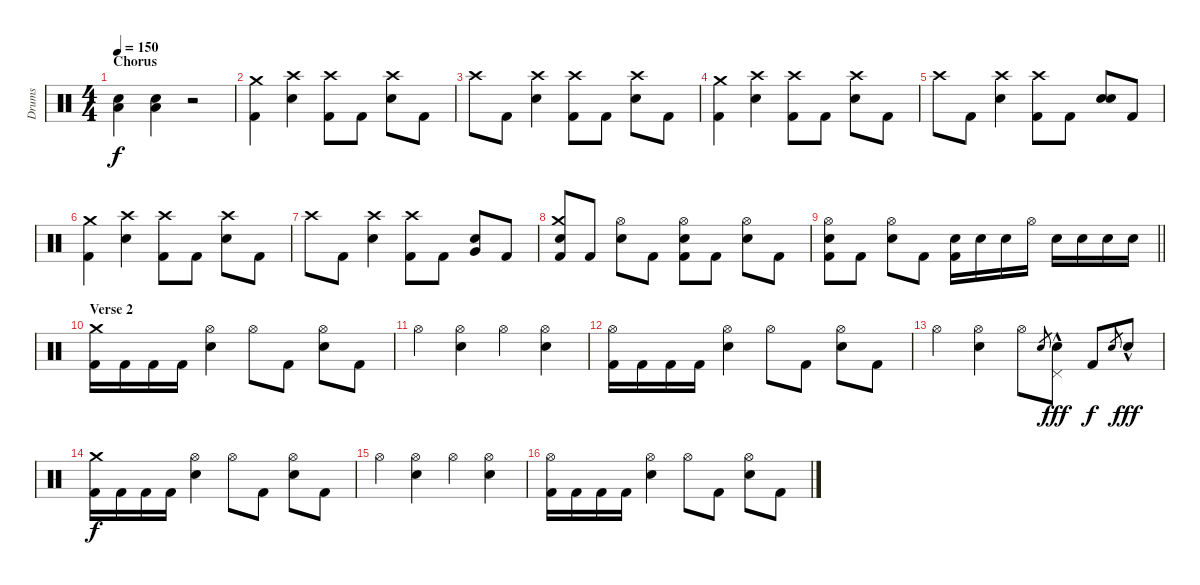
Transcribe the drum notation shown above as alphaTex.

\track ("Drums" "Drums") {instrument percussion}
\staff {score}
\articulation defaults
\ts (4 4)
\section ("" "Chorus")
\tempo 150
\clef neutral
\ks c
("Electric Snare (hit)" "Low Floor Tom (hit)").4{dy f} ("Electric Snare (hit)" "Low Floor Tom (hit)").4 r.2 |
("Crash medium (hit)" "Kick (hit) 2").4 ("Crash high (hit)" "Electric Snare (hit)").4 ("Crash high (hit)" "Kick (hit) 2").8 "Kick (hit) 2".8 ("Crash high (hit)" "Electric Snare (hit)").8 "Kick (hit) 2".8 |
"Crash high (hit)".8 "Kick (hit) 2".8 ("Crash high (hit)" "Electric Snare (hit)").4 ("Crash high (hit)" "Kick (hit) 2").8 "Kick (hit) 2".8 ("Crash high (hit)" "Electric Snare (hit)").8 "Kick (hit) 2".8 |
("Crash medium (hit)" "Kick (hit) 2").4 ("Crash high (hit)" "Electric Snare (hit)").4 ("Crash high (hit)" "Kick (hit) 2").8 "Kick (hit) 2".8 ("Crash high (hit)" "Electric Snare (hit)").8 "Kick (hit) 2".8 |
"Crash high (hit)".8 "Kick (hit) 2".8 ("Crash high (hit)" "Electric Snare (hit)").4 ("Crash high (hit)" "Kick (hit) 2").8 "Kick (hit) 2".8 ("Electric Snare (hit)" "Electric Snare (hit)").8 "Kick (hit) 2".8 |
("Crash medium (hit)" "Kick (hit) 2").4 ("Crash high (hit)" "Electric Snare (hit)").4 ("Crash high (hit)" "Kick (hit) 2").8 "Kick (hit) 2".8 ("Crash high (hit)" "Electric Snare (hit)").8 "Kick (hit) 2".8 |
"Crash high (hit)".8 "Kick (hit) 2".8 ("Crash high (hit)" "Electric Snare (hit)").4 ("Crash high (hit)" "Kick (hit) 2").8 "Kick (hit) 2".8 ("Electric Snare (hit)" "Very Low Tom (hit)").8 "Kick (hit) 2".8 |
("Crash medium (hit)" "Electric Snare (hit)" "Kick (hit) 2").8 "Kick (hit) 2".8 ("Hi-Hat (open)" "Electric Snare (hit)").8 "Kick (hit) 2".8 ("Hi-Hat (open)" "Electric Snare (hit)" "Kick (hit) 2").8 "Kick (hit) 2".8 ("Hi-Hat (open)" "Electric Snare (hit)").8 "Kick (hit) 2".8 |
\barLineRight lightlight
("Hi-Hat (open)" "Electric Snare (hit)" "Kick (hit) 2").8 "Kick (hit) 2".8 ("Hi-Hat (open)" "Electric Snare (hit)").8 "Kick (hit) 2".8 ("Electric Snare (hit)" "Kick (hit) 2").16 "Electric Snare (hit)".16 "Electric Snare (hit)".16 "Hi-Hat (open)".16 "Electric Snare (hit)".16 "Electric Snare (hit)".16 "Electric Snare (hit)".16 "Electric Snare (hit)".16 |
\section ("" "Verse 2")
("Crash medium (hit)" "Kick (hit) 2").16 "Kick (hit) 2".16 "Kick (hit) 2".16 "Kick (hit) 2".16 ("Hi-Hat (open)" "Electric Snare (hit)").4 "Hi-Hat (open)".8 "Kick (hit) 2".8 ("Hi-Hat (open)" "Electric Snare (hit)").8 "Kick (hit) 2".8 |
"Hi-Hat (open)".4 ("Hi-Hat (open)" "Electric Snare (hit)").4 "Hi-Hat (open)".4 ("Hi-Hat (open)" "Electric Snare (hit)").4 |
("Hi-Hat (open)" "Kick (hit) 2").16 "Kick (hit) 2".16 "Kick (hit) 2".16 "Kick (hit) 2".16 ("Hi-Hat (open)" "Electric Snare (hit)").4 "Hi-Hat (open)".8 "Kick (hit) 2".8 ("Hi-Hat (open)" "Electric Snare (hit)").8 "Kick (hit) 2".8 |
"Hi-Hat (open)".4 ("Hi-Hat (open)" "Electric Snare (hit)").4 "Hi-Hat (open)".8 "Electric Snare (hit)".8{gr} ("Electric Snare (hit)"{hac} "Pedal Hi-Hat (hit)").8{dy fff} "Kick (hit) 2".8{dy f} "Electric Snare (hit)".8{gr} "Electric Snare (hit)"{hac}.8{dy fff} |
("Crash medium (hit)" "Kick (hit) 2").16{dy f} "Kick (hit) 2".16 "Kick (hit) 2".16 "Kick (hit) 2".16 ("Hi-Hat (open)" "Electric Snare (hit)").4 "Hi-Hat (open)".8 "Kick (hit) 2".8 ("Hi-Hat (open)" "Electric Snare (hit)").8 "Kick (hit) 2".8 |
"Hi-Hat (open)".4 ("Hi-Hat (open)" "Electric Snare (hit)").4 "Hi-Hat (open)".4 ("Hi-Hat (open)" "Electric Snare (hit)").4 |
("Hi-Hat (open)" "Kick (hit) 2").16 "Kick (hit) 2".16 "Kick (hit) 2".16 "Kick (hit) 2".16 ("Hi-Hat (open)" "Electric Snare (hit)").4 "Hi-Hat (open)".8 "Kick (hit) 2".8 ("Hi-Hat (open)" "Electric Snare (hit)").8 "Kick (hit) 2".8
